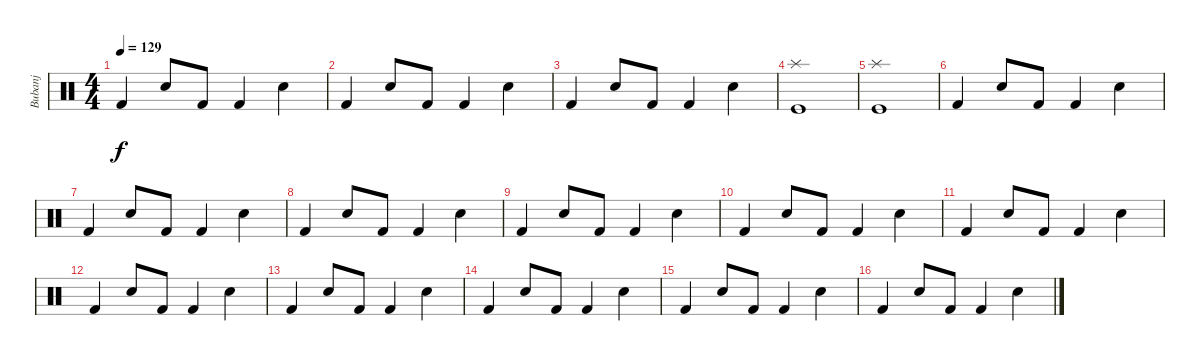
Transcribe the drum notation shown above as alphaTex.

\track ("Bubanj" "Bubanj") {instrument percussion}
\staff {score}
\articulation defaults
\ts (4 4)
\tempo 129
\clef neutral
\ks c "Kick (hit) 2".4{dy f} "Electric Snare (hit)".8 "Kick (hit) 2".8 "Kick (hit) 2".4 "Electric Snare (hit)".4
|
"Kick (hit) 2".4 "Electric Snare (hit)".8 "Kick (hit) 2".8 "Kick (hit) 2".4 "Electric Snare (hit)".4 |
"Kick (hit) 2".4 "Electric Snare (hit)".8 "Kick (hit) 2".8 "Kick (hit) 2".4 "Electric Snare (hit)".4 |
("Kick (hit)" "Splash (hit)").1 |
("Kick (hit)" "Splash (hit)").1 |
"Kick (hit) 2".4 "Electric Snare (hit)".8 "Kick (hit) 2".8 "Kick (hit) 2".4 "Electric Snare (hit)".4 |
"Kick (hit) 2".4 "Electric Snare (hit)".8 "Kick (hit) 2".8 "Kick (hit) 2".4 "Electric Snare (hit)".4 |
"Kick (hit) 2".4 "Electric Snare (hit)".8 "Kick (hit) 2".8 "Kick (hit) 2".4 "Electric Snare (hit)".4 |
"Kick (hit) 2".4 "Electric Snare (hit)".8 "Kick (hit) 2".8 "Kick (hit) 2".4 "Electric Snare (hit)".4 |
"Kick (hit) 2".4 "Electric Snare (hit)".8 "Kick (hit) 2".8 "Kick (hit) 2".4 "Electric Snare (hit)".4 |
"Kick (hit) 2".4 "Electric Snare (hit)".8 "Kick (hit) 2".8 "Kick (hit) 2".4 "Electric Snare (hit)".4 |
"Kick (hit) 2".4 "Electric Snare (hit)".8 "Kick (hit) 2".8 "Kick (hit) 2".4 "Electric Snare (hit)".4 |
"Kick (hit) 2".4 "Electric Snare (hit)".8 "Kick (hit) 2".8 "Kick (hit) 2".4 "Electric Snare (hit)".4 |
"Kick (hit) 2".4 "Electric Snare (hit)".8 "Kick (hit) 2".8 "Kick (hit) 2".4 "Electric Snare (hit)".4 |
"Kick (hit) 2".4 "Electric Snare (hit)".8 "Kick (hit) 2".8 "Kick (hit) 2".4 "Electric Snare (hit)".4 |
"Kick (hit) 2".4 "Electric Snare (hit)".8 "Kick (hit) 2".8 "Kick (hit) 2".4 "Electric Snare (hit)".4
